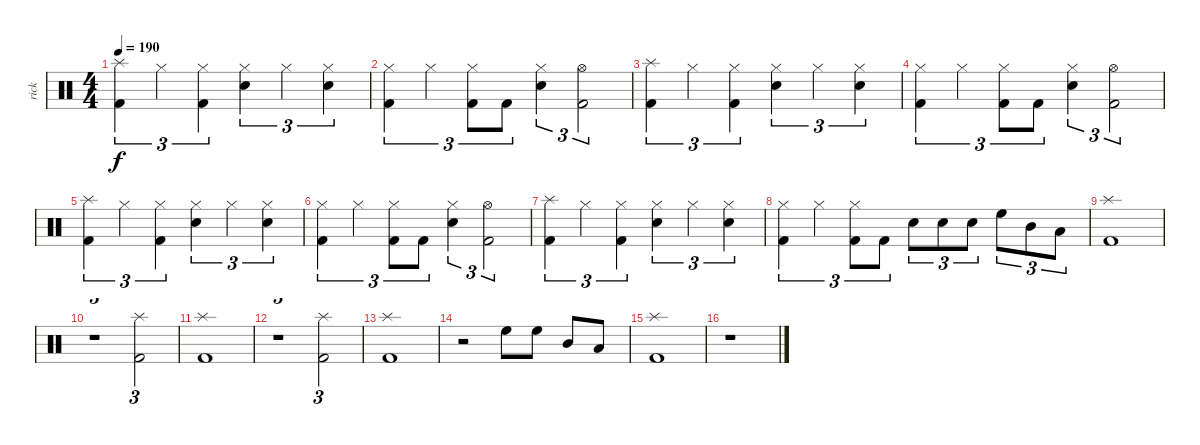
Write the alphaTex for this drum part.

\track ("rick" "rick") {instrument percussion}
\staff {score}
\articulation defaults
\ts (4 4)
\tempo 190
\clef neutral
\ks c
("Splash (hit)" "Kick (hit) 2").4{tu (3 2) dy f} "Hi-Hat (closed)".4{tu (3 2)} ("Hi-Hat (closed)" "Kick (hit) 2").4{tu (3 2)} ("Hi-Hat (closed)" "Snare (hit) 2").4{tu (3 2)} "Hi-Hat (closed)".4{tu (3 2)} ("Hi-Hat (closed)" "Snare (hit) 2").4{tu (3 2)} |
("Hi-Hat (closed)" "Kick (hit) 2").4{tu (3 2)} "Hi-Hat (closed)".4{tu (3 2)} ("Hi-Hat (closed)" "Kick (hit) 2").8{tu (3 2)} "Kick (hit) 2".8{tu (3 2)} ("Hi-Hat (closed)" "Snare (hit) 2").4{tu (3 2)} ("Hi-Hat (open)" "Kick (hit) 2").2{tu (3 2)} |
("Splash (hit)" "Kick (hit) 2").4{tu (3 2)} "Hi-Hat (closed)".4{tu (3 2)} ("Hi-Hat (closed)" "Kick (hit) 2").4{tu (3 2)} ("Hi-Hat (closed)" "Snare (hit) 2").4{tu (3 2)} "Hi-Hat (closed)".4{tu (3 2)} ("Hi-Hat (closed)" "Snare (hit) 2").4{tu (3 2)} |
("Hi-Hat (closed)" "Kick (hit) 2").4{tu (3 2)} "Hi-Hat (closed)".4{tu (3 2)} ("Hi-Hat (closed)" "Kick (hit) 2").8{tu (3 2)} "Kick (hit) 2".8{tu (3 2)} ("Hi-Hat (closed)" "Snare (hit) 2").4{tu (3 2)} ("Hi-Hat (open)" "Kick (hit) 2").2{tu (3 2)} |
("Splash (hit)" "Kick (hit) 2").4{tu (3 2)} "Hi-Hat (closed)".4{tu (3 2)} ("Hi-Hat (closed)" "Kick (hit) 2").4{tu (3 2)} ("Hi-Hat (closed)" "Snare (hit) 2").4{tu (3 2)} "Hi-Hat (closed)".4{tu (3 2)} ("Hi-Hat (closed)" "Snare (hit) 2").4{tu (3 2)} |
("Hi-Hat (closed)" "Kick (hit) 2").4{tu (3 2)} "Hi-Hat (closed)".4{tu (3 2)} ("Hi-Hat (closed)" "Kick (hit) 2").8{tu (3 2)} "Kick (hit) 2".8{tu (3 2)} ("Hi-Hat (closed)" "Snare (hit) 2").4{tu (3 2)} ("Hi-Hat (open)" "Kick (hit) 2").2{tu (3 2)} |
("Splash (hit)" "Kick (hit) 2").4{tu (3 2)} "Hi-Hat (closed)".4{tu (3 2)} ("Hi-Hat (closed)" "Kick (hit) 2").4{tu (3 2)} ("Hi-Hat (closed)" "Snare (hit) 2").4{tu (3 2)} "Hi-Hat (closed)".4{tu (3 2)} ("Hi-Hat (closed)" "Snare (hit) 2").4{tu (3 2)} |
("Hi-Hat (closed)" "Kick (hit) 2").4{tu (3 2)} "Hi-Hat (closed)".4{tu (3 2)} ("Hi-Hat (closed)" "Kick (hit) 2").8{tu (3 2)} "Kick (hit) 2".8{tu (3 2)} "Snare (hit) 2".8{tu (3 2)} "Snare (hit) 2".8{tu (3 2)} "Snare (hit) 2".8{tu (3 2)} "High Floor Tom (hit)".8{tu (3 2)} "Mid Tom (hit)".8{tu (3 2)} "Low Floor Tom (hit)".8{tu (3 2)} |
("Splash (hit)" "Kick (hit) 2").1 |
r.1{tu (3 2)} ("Splash (hit)" "Kick (hit) 2").2{tu (3 2)} |
("Splash (hit)" "Kick (hit) 2").1 |
r.1{tu (3 2)} ("Splash (hit)" "Kick (hit) 2").2{tu (3 2)} |
("Splash (hit)" "Kick (hit) 2").1 |
r.2 "High Floor Tom (hit)".8 "High Floor Tom (hit)".8 "Mid Tom (hit)".8 "Low Floor Tom (hit)".8 |
("Splash (hit)" "Kick (hit) 2").1 |
r.1
